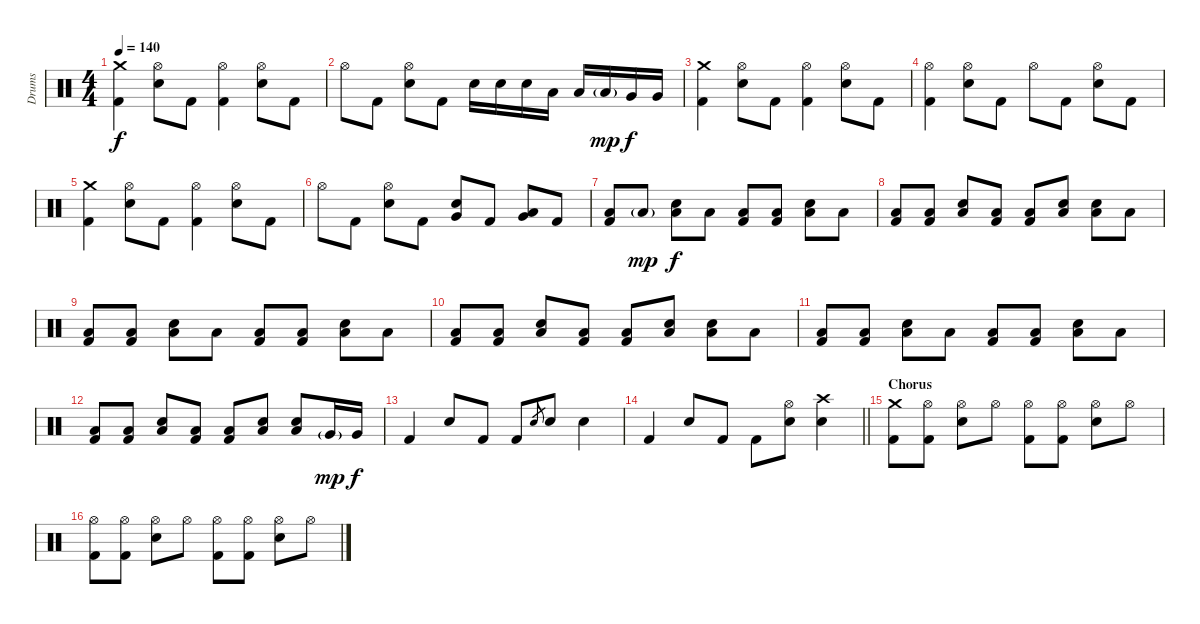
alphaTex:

\track ("Drums" "Drums") {instrument percussion}
\staff {score}
\articulation defaults
\ts (4 4)
\tempo 140
\clef neutral
\ks c
("Crash medium (hit)" "Kick (hit) 2").4{dy f} ("Hi-Hat (open)" "Electric Snare (hit)").8 "Kick (hit) 2".8 ("Hi-Hat (open)" "Kick (hit) 2").4 ("Hi-Hat (open)" "Electric Snare (hit)").8 "Kick (hit) 2".8 |
"Hi-Hat (open)".8 "Kick (hit) 2".8 ("Hi-Hat (open)" "Electric Snare (hit)").8 "Kick (hit) 2".8 "Electric Snare (hit)".16 "Electric Snare (hit)".16 "Electric Snare (hit)".16 "Low Tom (hit)".16 "Low Tom (hit)".16 "Low Tom (hit)"{g}.16{dy mp} "Very Low Tom (hit)".16{dy f} "Very Low Tom (hit)".16 |
("Crash medium (hit)" "Kick (hit) 2").4 ("Hi-Hat (open)" "Electric Snare (hit)").8 "Kick (hit) 2".8 ("Hi-Hat (open)" "Kick (hit) 2").4 ("Hi-Hat (open)" "Electric Snare (hit)").8 "Kick (hit) 2".8 |
("Hi-Hat (open)" "Kick (hit) 2").4 ("Hi-Hat (open)" "Electric Snare (hit)").8 "Kick (hit) 2".8 "Hi-Hat (open)".8 "Kick (hit) 2".8 ("Hi-Hat (open)" "Electric Snare (hit)").8 "Kick (hit) 2".8 |
("Crash medium (hit)" "Kick (hit) 2").4 ("Hi-Hat (open)" "Electric Snare (hit)").8 "Kick (hit) 2".8 ("Hi-Hat (open)" "Kick (hit) 2").4 ("Hi-Hat (open)" "Electric Snare (hit)").8 "Kick (hit) 2".8 |
"Hi-Hat (open)".8 "Kick (hit) 2".8 ("Hi-Hat (open)" "Electric Snare (hit)").8 "Kick (hit) 2".8 ("Very Low Tom (hit)" "Electric Snare (hit)").8 "Kick (hit) 2".8 ("Low Floor Tom (hit)" "Very Low Tom (hit)").8 "Kick (hit) 2".8 |
("Low Floor Tom (hit)" "Kick (hit) 2").8 "Low Floor Tom (hit)"{g}.8{dy mp} ("Low Floor Tom (hit)" "Electric Snare (hit)").8{dy f} "Low Floor Tom (hit)".8 ("Low Floor Tom (hit)" "Kick (hit) 2").8 ("Low Floor Tom (hit)" "Kick (hit) 2").8 ("Low Floor Tom (hit)" "Electric Snare (hit)").8 "Low Floor Tom (hit)".8 |
("Low Floor Tom (hit)" "Kick (hit) 2").8 ("Low Floor Tom (hit)" "Kick (hit) 2").8 ("Low Floor Tom (hit)" "Electric Snare (hit)").8 ("Low Floor Tom (hit)" "Kick (hit) 2").8 ("Low Floor Tom (hit)" "Kick (hit) 2").8 ("Low Floor Tom (hit)" "Electric Snare (hit)").8 ("Low Floor Tom (hit)" "Electric Snare (hit)").8 "Low Floor Tom (hit)".8 |
("Low Floor Tom (hit)" "Kick (hit) 2").8 ("Low Floor Tom (hit)" "Kick (hit) 2").8 ("Low Floor Tom (hit)" "Electric Snare (hit)").8 "Low Floor Tom (hit)".8 ("Low Floor Tom (hit)" "Kick (hit) 2").8 ("Low Floor Tom (hit)" "Kick (hit) 2").8 ("Low Floor Tom (hit)" "Electric Snare (hit)").8 "Low Floor Tom (hit)".8 |
("Low Floor Tom (hit)" "Kick (hit) 2").8 ("Low Floor Tom (hit)" "Kick (hit) 2").8 ("Low Floor Tom (hit)" "Electric Snare (hit)").8 ("Low Floor Tom (hit)" "Kick (hit) 2").8 ("Low Floor Tom (hit)" "Kick (hit) 2").8 ("Low Floor Tom (hit)" "Electric Snare (hit)").8 ("Low Floor Tom (hit)" "Electric Snare (hit)").8 "Low Floor Tom (hit)".8 |
("Low Floor Tom (hit)" "Kick (hit) 2").8 ("Low Floor Tom (hit)" "Kick (hit) 2").8 ("Low Floor Tom (hit)" "Electric Snare (hit)").8 "Low Floor Tom (hit)".8 ("Low Floor Tom (hit)" "Kick (hit) 2").8 ("Low Floor Tom (hit)" "Kick (hit) 2").8 ("Low Floor Tom (hit)" "Electric Snare (hit)").8 "Low Floor Tom (hit)".8 |
("Low Floor Tom (hit)" "Kick (hit) 2").8 ("Low Floor Tom (hit)" "Kick (hit) 2").8 ("Low Floor Tom (hit)" "Electric Snare (hit)").8 ("Low Floor Tom (hit)" "Kick (hit) 2").8 ("Low Floor Tom (hit)" "Kick (hit) 2").8 ("Low Floor Tom (hit)" "Electric Snare (hit)").8 ("Low Floor Tom (hit)" "Electric Snare (hit)").8 "Very Low Tom (hit)"{g}.16{dy mp} "Very Low Tom (hit)".16{dy f} |
"Kick (hit) 2".4 "Electric Snare (hit)".8 "Kick (hit) 2".8 "Kick (hit) 2".8 "Electric Snare (hit)".8{gr} "Electric Snare (hit)".8 "Electric Snare (hit)".4 |
\barLineRight lightlight "Kick (hit) 2".4 "Electric Snare (hit)".8 "Kick (hit) 2".8 "Kick (hit) 2".8
("Hi-Hat (open)" "Electric Snare (hit)").8 ("Crash high (hit)" "Electric Snare (hit)").4 |
\section ("" "Chorus")
("Crash medium (hit)" "Kick (hit) 2").8 ("Hi-Hat (open)" "Kick (hit) 2").8 ("Hi-Hat (open)" "Electric Snare (hit)").8 "Hi-Hat (open)".8 ("Hi-Hat (open)" "Kick (hit) 2").8 ("Hi-Hat (open)" "Kick (hit) 2").8 ("Hi-Hat (open)" "Electric Snare (hit)").8 "Hi-Hat (open)".8 |
("Hi-Hat (open)" "Kick (hit) 2").8 ("Hi-Hat (open)" "Kick (hit) 2").8 ("Hi-Hat (open)" "Electric Snare (hit)").8 "Hi-Hat (open)".8 ("Hi-Hat (open)" "Kick (hit) 2").8 ("Hi-Hat (open)" "Kick (hit) 2").8 ("Hi-Hat (open)" "Electric Snare (hit)").8 "Hi-Hat (open)".8
